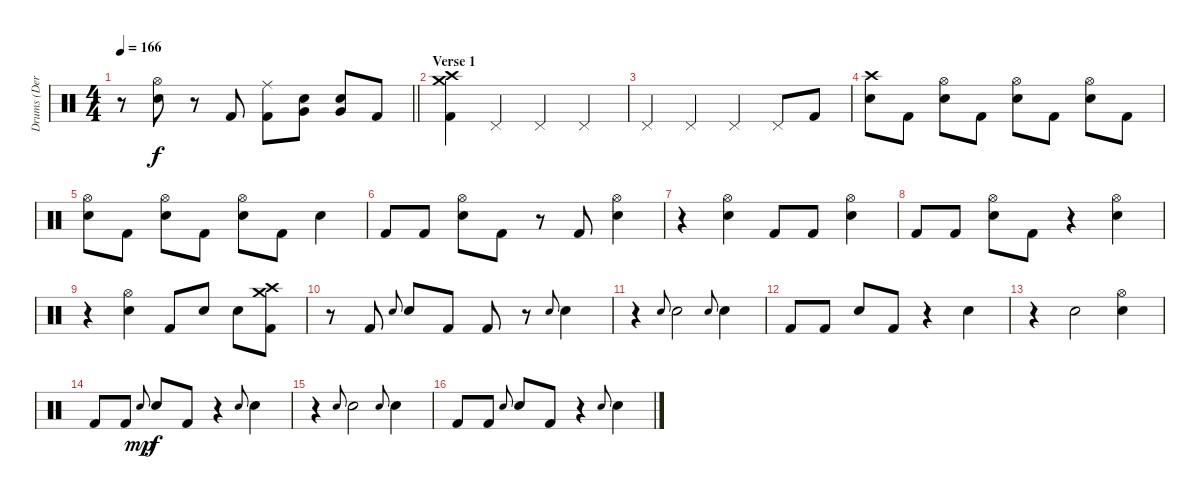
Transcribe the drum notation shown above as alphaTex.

\track ("Drums (Derek)" "Drums (Der") {instrument percussion}
\staff {score}
\articulation defaults
\ts (4 4)
\tempo 166
\clef neutral
\barLineRight lightlight
\ks c
r.8{dy f} ("Hi-Hat (open)" "Electric Snare (hit)").8 r.8 "Kick (hit) 2".8 ("Ride (middle)" "Kick (hit) 2").8 ("Very Low Tom (hit)" "Electric Snare (hit)").8 ("Very Low Tom (hit)" "Electric Snare (hit)").8 "Kick (hit) 2".8 |
\section ("" "Verse 1")
("Crash high (hit)" "Kick (hit) 2" "Crash medium (hit)").4 "Pedal Hi-Hat (hit)".4 "Pedal Hi-Hat (hit)".4 "Pedal Hi-Hat (hit)".4 |
"Pedal Hi-Hat (hit)".4 "Pedal Hi-Hat (hit)".4 "Pedal Hi-Hat (hit)".4 "Pedal Hi-Hat (hit)".8 "Kick (hit) 2".8 |
("Crash high (hit)" "Electric Snare (hit)").8 "Kick (hit) 2".8 ("Hi-Hat (open)" "Electric Snare (hit)").8 "Kick (hit) 2".8 ("Hi-Hat (open)" "Electric Snare (hit)").8 "Kick (hit) 2".8 ("Hi-Hat (open)" "Electric Snare (hit)").8 "Kick (hit) 2".8 |
("Hi-Hat (open)" "Electric Snare (hit)").8 "Kick (hit) 2".8 ("Hi-Hat (open)" "Electric Snare (hit)").8 "Kick (hit) 2".8 ("Hi-Hat (open)" "Electric Snare (hit)").8 "Kick (hit) 2".8 "Electric Snare (hit)".4 |
"Kick (hit) 2".8 "Kick (hit) 2".8 ("Hi-Hat (open)" "Electric Snare (hit)").8 "Kick (hit) 2".8 r.8 "Kick (hit) 2".8 ("Hi-Hat (open)" "Electric Snare (hit)").4 |
r.4 ("Hi-Hat (open)" "Electric Snare (hit)").4 "Kick (hit) 2".8 "Kick (hit) 2".8 ("Hi-Hat (open)" "Electric Snare (hit)").4 |
"Kick (hit) 2".8 "Kick (hit) 2".8 ("Hi-Hat (open)" "Electric Snare (hit)").8 "Kick (hit) 2".8 r.4 ("Hi-Hat (open)" "Electric Snare (hit)").4 |
r.4 ("Hi-Hat (open)" "Electric Snare (hit)").4 "Kick (hit) 2".8 "Electric Snare (hit)".8 "Electric Snare (hit)".8 ("Crash medium (hit)" "Crash high (hit)" "Kick (hit) 2").8 |
r.8 "Kick (hit) 2".8 "Electric Snare (hit)".8{gr onbeat} "Electric Snare (hit)".8 "Kick (hit) 2".8 "Kick (hit) 2".8 r.8 "Electric Snare (hit)".8{gr onbeat} "Electric Snare (hit)".4 |
r.4 "Electric Snare (hit)".8{gr onbeat} "Electric Snare (hit)".2 "Electric Snare (hit)".8{gr onbeat} "Electric Snare (hit)".4 |
"Kick (hit) 2".8 "Kick (hit) 2".8 "Electric Snare (hit)".8 "Kick (hit) 2".8 r.4 "Electric Snare (hit)".4 |
r.4 "Electric Snare (hit)".2 ("Hi-Hat (open)" "Electric Snare (hit)").4 |
"Kick (hit) 2".8 "Kick (hit) 2".8 "Electric Snare (hit)".8{gr onbeat dy mp} "Electric Snare (hit)".8{dy f} "Kick (hit) 2".8 r.4 "Electric Snare (hit)".8{gr onbeat} "Electric Snare (hit)".4 |
r.4 "Electric Snare (hit)".8{gr onbeat} "Electric Snare (hit)".2 "Electric Snare (hit)".8{gr onbeat} "Electric Snare (hit)".4 |
"Kick (hit) 2".8 "Kick (hit) 2".8 "Electric Snare (hit)".8{gr onbeat} "Electric Snare (hit)".8 "Kick (hit) 2".8 r.4 "Electric Snare (hit)".8{gr onbeat} "Electric Snare (hit)".4
